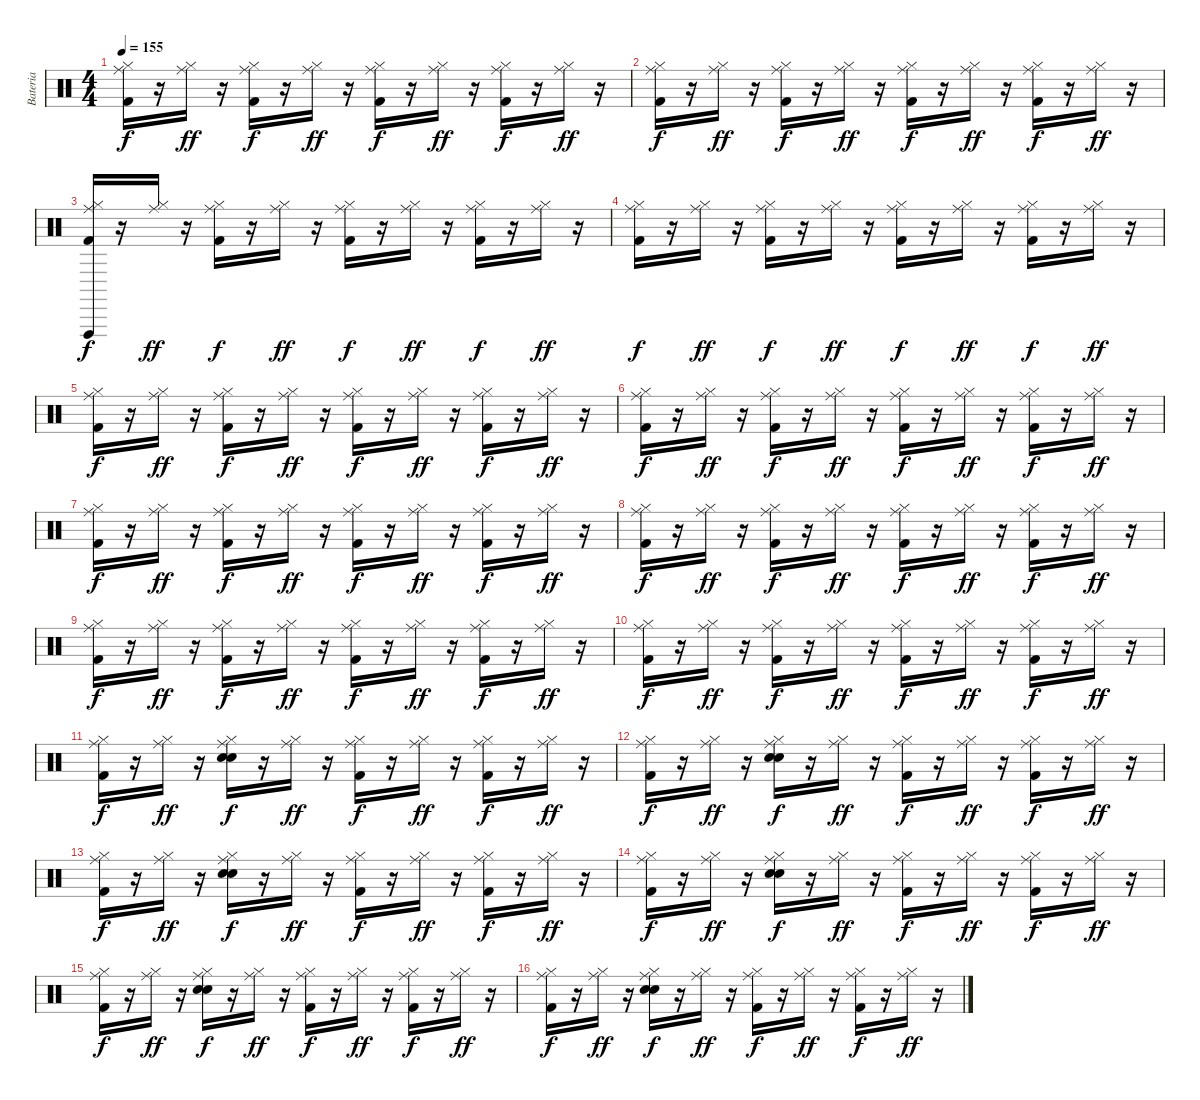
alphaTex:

\track ("Bateria" "Bateria") {instrument percussion}
\staff {score}
\articulation defaults
\ts (4 4)
\tempo 155
\clef neutral
\ks c
("Ride (middle)" "Hi-Hat (closed)" "Kick (hit) 2").16{dy f} r.16 ("Ride (middle)" "Hi-Hat (closed)").16{dy ff} r.16 ("Ride (middle)" "Hi-Hat (closed)" "Kick (hit) 2").16{dy f} r.16 ("Ride (middle)" "Hi-Hat (closed)").16{dy ff} r.16 ("Ride (middle)" "Hi-Hat (closed)" "Kick (hit) 2").16{dy f} r.16 ("Ride (middle)" "Hi-Hat (closed)").16{dy ff} r.16 ("Ride (middle)" "Hi-Hat (closed)" "Kick (hit) 2").16{dy f} r.16 ("Ride (middle)" "Hi-Hat (closed)").16{dy ff} r.16 |
("Ride (middle)" "Hi-Hat (closed)" "Kick (hit) 2").16{dy f} r.16 ("Ride (middle)" "Hi-Hat (closed)").16{dy ff} r.16 ("Ride (middle)" "Hi-Hat (closed)" "Kick (hit) 2").16{dy f} r.16 ("Ride (middle)" "Hi-Hat (closed)").16{dy ff} r.16 ("Ride (middle)" "Hi-Hat (closed)" "Kick (hit) 2").16{dy f} r.16 ("Ride (middle)" "Hi-Hat (closed)").16{dy ff} r.16 ("Ride (middle)" "Hi-Hat (closed)" "Kick (hit) 2").16{dy f} r.16 ("Ride (middle)" "Hi-Hat (closed)").16{dy ff} r.16 |
("Ride (middle)" "Hi-Hat (closed)" "Vibraslap (hit)" "Kick (hit) 2").16{dy f} r.16 ("Ride (middle)" "Hi-Hat (closed)").16{dy ff} r.16 ("Ride (middle)" "Hi-Hat (closed)" "Kick (hit) 2").16{dy f} r.16 ("Ride (middle)" "Hi-Hat (closed)").16{dy ff} r.16 ("Ride (middle)" "Hi-Hat (closed)" "Kick (hit) 2").16{dy f} r.16 ("Ride (middle)" "Hi-Hat (closed)").16{dy ff} r.16 ("Ride (middle)" "Hi-Hat (closed)" "Kick (hit) 2").16{dy f} r.16 ("Ride (middle)" "Hi-Hat (closed)").16{dy ff} r.16 |
("Ride (middle)" "Hi-Hat (closed)" "Kick (hit) 2").16{dy f} r.16 ("Ride (middle)" "Hi-Hat (closed)").16{dy ff} r.16 ("Ride (middle)" "Hi-Hat (closed)" "Kick (hit) 2").16{dy f} r.16 ("Ride (middle)" "Hi-Hat (closed)").16{dy ff} r.16 ("Ride (middle)" "Hi-Hat (closed)" "Kick (hit) 2").16{dy f} r.16 ("Ride (middle)" "Hi-Hat (closed)").16{dy ff} r.16 ("Ride (middle)" "Hi-Hat (closed)" "Kick (hit) 2").16{dy f} r.16 ("Ride (middle)" "Hi-Hat (closed)").16{dy ff} r.16 |
("Ride (middle)" "Hi-Hat (closed)" "Kick (hit) 2").16{dy f} r.16 ("Ride (middle)" "Hi-Hat (closed)").16{dy ff} r.16 ("Ride (middle)" "Hi-Hat (closed)" "Kick (hit) 2").16{dy f} r.16 ("Ride (middle)" "Hi-Hat (closed)").16{dy ff} r.16 ("Ride (middle)" "Hi-Hat (closed)" "Kick (hit) 2").16{dy f} r.16 ("Ride (middle)" "Hi-Hat (closed)").16{dy ff} r.16 ("Ride (middle)" "Hi-Hat (closed)" "Kick (hit) 2").16{dy f} r.16 ("Ride (middle)" "Hi-Hat (closed)").16{dy ff} r.16 |
("Ride (middle)" "Hi-Hat (closed)" "Kick (hit) 2").16{dy f} r.16 ("Ride (middle)" "Hi-Hat (closed)").16{dy ff} r.16 ("Ride (middle)" "Hi-Hat (closed)" "Kick (hit) 2").16{dy f} r.16 ("Ride (middle)" "Hi-Hat (closed)").16{dy ff} r.16 ("Ride (middle)" "Hi-Hat (closed)" "Kick (hit) 2").16{dy f} r.16 ("Ride (middle)" "Hi-Hat (closed)").16{dy ff} r.16 ("Ride (middle)" "Hi-Hat (closed)" "Kick (hit) 2").16{dy f} r.16 ("Ride (middle)" "Hi-Hat (closed)").16{dy ff} r.16 |
("Ride (middle)" "Hi-Hat (closed)" "Kick (hit) 2").16{dy f} r.16 ("Ride (middle)" "Hi-Hat (closed)").16{dy ff} r.16 ("Ride (middle)" "Hi-Hat (closed)" "Kick (hit) 2").16{dy f} r.16 ("Ride (middle)" "Hi-Hat (closed)").16{dy ff} r.16 ("Ride (middle)" "Hi-Hat (closed)" "Kick (hit) 2").16{dy f} r.16 ("Ride (middle)" "Hi-Hat (closed)").16{dy ff} r.16 ("Ride (middle)" "Hi-Hat (closed)" "Kick (hit) 2").16{dy f} r.16 ("Ride (middle)" "Hi-Hat (closed)").16{dy ff} r.16 |
("Ride (middle)" "Hi-Hat (closed)" "Kick (hit) 2").16{dy f} r.16 ("Ride (middle)" "Hi-Hat (closed)").16{dy ff} r.16 ("Ride (middle)" "Hi-Hat (closed)" "Kick (hit) 2").16{dy f} r.16 ("Ride (middle)" "Hi-Hat (closed)").16{dy ff} r.16 ("Ride (middle)" "Hi-Hat (closed)" "Kick (hit) 2").16{dy f} r.16 ("Ride (middle)" "Hi-Hat (closed)").16{dy ff} r.16 ("Ride (middle)" "Hi-Hat (closed)" "Kick (hit) 2").16{dy f} r.16 ("Ride (middle)" "Hi-Hat (closed)").16{dy ff} r.16 |
("Ride (middle)" "Hi-Hat (closed)" "Kick (hit) 2").16{dy f} r.16 ("Ride (middle)" "Hi-Hat (closed)").16{dy ff} r.16 ("Ride (middle)" "Hi-Hat (closed)" "Kick (hit) 2").16{dy f} r.16 ("Ride (middle)" "Hi-Hat (closed)").16{dy ff} r.16 ("Ride (middle)" "Hi-Hat (closed)" "Kick (hit) 2").16{dy f} r.16 ("Ride (middle)" "Hi-Hat (closed)").16{dy ff} r.16 ("Ride (middle)" "Hi-Hat (closed)" "Kick (hit) 2").16{dy f} r.16 ("Ride (middle)" "Hi-Hat (closed)").16{dy ff} r.16 |
("Ride (middle)" "Hi-Hat (closed)" "Kick (hit) 2").16{dy f} r.16 ("Ride (middle)" "Hi-Hat (closed)").16{dy ff} r.16 ("Ride (middle)" "Hi-Hat (closed)" "Kick (hit) 2").16{dy f} r.16 ("Ride (middle)" "Hi-Hat (closed)").16{dy ff} r.16 ("Ride (middle)" "Hi-Hat (closed)" "Kick (hit) 2").16{dy f} r.16 ("Ride (middle)" "Hi-Hat (closed)").16{dy ff} r.16 ("Ride (middle)" "Hi-Hat (closed)" "Kick (hit) 2").16{dy f} r.16 ("Ride (middle)" "Hi-Hat (closed)").16{dy ff} r.16 |
("Ride (middle)" "Hi-Hat (closed)" "Kick (hit) 2").16{dy f} r.16 ("Ride (middle)" "Hi-Hat (closed)").16{dy ff} r.16 ("Ride (middle)" "Hi-Hat (closed)" "Snare (hit) 2" "Electric Snare (hit)").16{dy f} r.16 ("Ride (middle)" "Hi-Hat (closed)").16{dy ff} r.16 ("Ride (middle)" "Hi-Hat (closed)" "Kick (hit) 2").16{dy f} r.16 ("Ride (middle)" "Hi-Hat (closed)").16{dy ff} r.16 ("Ride (middle)" "Hi-Hat (closed)" "Kick (hit) 2").16{dy f} r.16 ("Ride (middle)" "Hi-Hat (closed)").16{dy ff} r.16 |
("Ride (middle)" "Hi-Hat (closed)" "Kick (hit) 2").16{dy f} r.16 ("Ride (middle)" "Hi-Hat (closed)").16{dy ff} r.16 ("Ride (middle)" "Hi-Hat (closed)" "Snare (hit) 2" "Electric Snare (hit)").16{dy f} r.16 ("Ride (middle)" "Hi-Hat (closed)").16{dy ff} r.16 ("Ride (middle)" "Hi-Hat (closed)" "Kick (hit) 2").16{dy f} r.16 ("Ride (middle)" "Hi-Hat (closed)").16{dy ff} r.16 ("Ride (middle)" "Hi-Hat (closed)" "Kick (hit) 2").16{dy f} r.16 ("Ride (middle)" "Hi-Hat (closed)").16{dy ff} r.16 |
("Ride (middle)" "Hi-Hat (closed)" "Kick (hit) 2").16{dy f} r.16 ("Ride (middle)" "Hi-Hat (closed)").16{dy ff} r.16 ("Ride (middle)" "Hi-Hat (closed)" "Snare (hit) 2" "Electric Snare (hit)").16{dy f} r.16 ("Ride (middle)" "Hi-Hat (closed)").16{dy ff} r.16 ("Ride (middle)" "Hi-Hat (closed)" "Kick (hit) 2").16{dy f} r.16 ("Ride (middle)" "Hi-Hat (closed)").16{dy ff} r.16 ("Ride (middle)" "Hi-Hat (closed)" "Kick (hit) 2").16{dy f} r.16 ("Ride (middle)" "Hi-Hat (closed)").16{dy ff} r.16 |
("Ride (middle)" "Hi-Hat (closed)" "Kick (hit) 2").16{dy f} r.16 ("Ride (middle)" "Hi-Hat (closed)").16{dy ff} r.16 ("Ride (middle)" "Hi-Hat (closed)" "Snare (hit) 2" "Electric Snare (hit)").16{dy f} r.16 ("Ride (middle)" "Hi-Hat (closed)").16{dy ff} r.16 ("Ride (middle)" "Hi-Hat (closed)" "Kick (hit) 2").16{dy f} r.16 ("Ride (middle)" "Hi-Hat (closed)").16{dy ff} r.16 ("Ride (middle)" "Hi-Hat (closed)" "Kick (hit) 2").16{dy f} r.16 ("Ride (middle)" "Hi-Hat (closed)").16{dy ff} r.16 |
("Ride (middle)" "Hi-Hat (closed)" "Kick (hit) 2").16{dy f} r.16 ("Ride (middle)" "Hi-Hat (closed)").16{dy ff} r.16 ("Ride (middle)" "Hi-Hat (closed)" "Snare (hit) 2" "Electric Snare (hit)").16{dy f} r.16 ("Ride (middle)" "Hi-Hat (closed)").16{dy ff} r.16 ("Ride (middle)" "Hi-Hat (closed)" "Kick (hit) 2").16{dy f} r.16 ("Ride (middle)" "Hi-Hat (closed)").16{dy ff} r.16 ("Ride (middle)" "Hi-Hat (closed)" "Kick (hit) 2").16{dy f} r.16 ("Ride (middle)" "Hi-Hat (closed)").16{dy ff} r.16 |
("Ride (middle)" "Hi-Hat (closed)" "Kick (hit) 2").16{dy f} r.16 ("Ride (middle)" "Hi-Hat (closed)").16{dy ff} r.16 ("Ride (middle)" "Hi-Hat (closed)" "Snare (hit) 2" "Electric Snare (hit)").16{dy f} r.16 ("Ride (middle)" "Hi-Hat (closed)").16{dy ff} r.16 ("Ride (middle)" "Hi-Hat (closed)" "Kick (hit) 2").16{dy f} r.16 ("Ride (middle)" "Hi-Hat (closed)").16{dy ff} r.16 ("Ride (middle)" "Hi-Hat (closed)" "Kick (hit) 2").16{dy f} r.16 ("Ride (middle)" "Hi-Hat (closed)").16{dy ff} r.16
